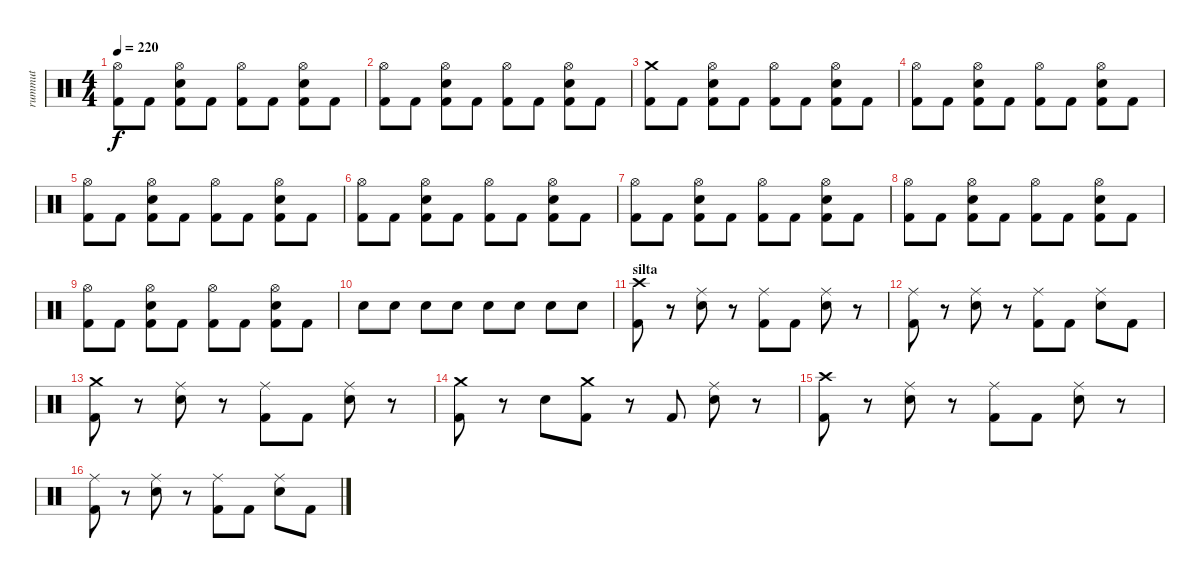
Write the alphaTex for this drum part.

\track ("rummut" "rummut") {instrument percussion}
\staff {score}
\articulation defaults
\ts (4 4)
\tempo 220
\clef neutral
\ks c
("Hi-Hat (open)" "Kick (hit) 2").8{dy f} "Kick (hit) 2".8 ("Hi-Hat (open)" "Electric Snare (hit)" "Kick (hit) 2").8 "Kick (hit) 2".8 ("Hi-Hat (open)" "Kick (hit) 2").8 "Kick (hit) 2".8 ("Hi-Hat (open)" "Electric Snare (hit)" "Kick (hit) 2").8 "Kick (hit) 2".8 |
("Hi-Hat (open)" "Kick (hit) 2").8 "Kick (hit) 2".8 ("Hi-Hat (open)" "Electric Snare (hit)" "Kick (hit) 2").8 "Kick (hit) 2".8 ("Hi-Hat (open)" "Kick (hit) 2").8 "Kick (hit) 2".8 ("Hi-Hat (open)" "Electric Snare (hit)" "Kick (hit) 2").8 "Kick (hit) 2".8 |
("Crash medium (hit)" "Kick (hit) 2").8 "Kick (hit) 2".8 ("Hi-Hat (open)" "Electric Snare (hit)" "Kick (hit) 2").8 "Kick (hit) 2".8 ("Hi-Hat (open)" "Kick (hit) 2").8 "Kick (hit) 2".8 ("Hi-Hat (open)" "Electric Snare (hit)" "Kick (hit) 2").8 "Kick (hit) 2".8 |
("Hi-Hat (open)" "Kick (hit) 2").8 "Kick (hit) 2".8 ("Hi-Hat (open)" "Electric Snare (hit)" "Kick (hit) 2").8 "Kick (hit) 2".8 ("Hi-Hat (open)" "Kick (hit) 2").8 "Kick (hit) 2".8 ("Hi-Hat (open)" "Electric Snare (hit)" "Kick (hit) 2").8 "Kick (hit) 2".8 |
("Hi-Hat (open)" "Kick (hit) 2").8 "Kick (hit) 2".8 ("Hi-Hat (open)" "Electric Snare (hit)" "Kick (hit) 2").8 "Kick (hit) 2".8 ("Hi-Hat (open)" "Kick (hit) 2").8 "Kick (hit) 2".8 ("Hi-Hat (open)" "Electric Snare (hit)" "Kick (hit) 2").8 "Kick (hit) 2".8 |
("Hi-Hat (open)" "Kick (hit) 2").8 "Kick (hit) 2".8 ("Hi-Hat (open)" "Electric Snare (hit)" "Kick (hit) 2").8 "Kick (hit) 2".8 ("Hi-Hat (open)" "Kick (hit) 2").8 "Kick (hit) 2".8 ("Hi-Hat (open)" "Electric Snare (hit)" "Kick (hit) 2").8 "Kick (hit) 2".8 |
("Hi-Hat (open)" "Kick (hit) 2").8 "Kick (hit) 2".8 ("Hi-Hat (open)" "Electric Snare (hit)" "Kick (hit) 2").8 "Kick (hit) 2".8 ("Hi-Hat (open)" "Kick (hit) 2").8 "Kick (hit) 2".8 ("Hi-Hat (open)" "Electric Snare (hit)" "Kick (hit) 2").8 "Kick (hit) 2".8 |
("Hi-Hat (open)" "Kick (hit) 2").8 "Kick (hit) 2".8 ("Hi-Hat (open)" "Electric Snare (hit)" "Kick (hit) 2").8 "Kick (hit) 2".8 ("Hi-Hat (open)" "Kick (hit) 2").8 "Kick (hit) 2".8 ("Hi-Hat (open)" "Electric Snare (hit)" "Kick (hit) 2").8 "Kick (hit) 2".8 |
("Hi-Hat (open)" "Kick (hit) 2").8 "Kick (hit) 2".8 ("Hi-Hat (open)" "Electric Snare (hit)" "Kick (hit) 2").8 "Kick (hit) 2".8 ("Hi-Hat (open)" "Kick (hit) 2").8 "Kick (hit) 2".8 ("Hi-Hat (open)" "Electric Snare (hit)" "Kick (hit) 2").8 "Kick (hit) 2".8 |
"Electric Snare (hit)".8 "Electric Snare (hit)".8 "Electric Snare (hit)".8 "Electric Snare (hit)".8 "Electric Snare (hit)".8 "Electric Snare (hit)".8 "Electric Snare (hit)".8 "Electric Snare (hit)".8 |
\section ("" "silta")
("Crash high (hit)" "Kick (hit) 2").8 r.8 ("Ride (middle)" "Electric Snare (hit)").8 r.8 ("Ride (middle)" "Kick (hit) 2").8 "Kick (hit) 2".8 ("Ride (middle)" "Electric Snare (hit)").8 r.8 |
("Ride (middle)" "Kick (hit) 2").8 r.8 ("Ride (middle)" "Electric Snare (hit)").8 r.8 ("Ride (middle)" "Kick (hit) 2").8 "Kick (hit) 2".8 ("Ride (middle)" "Electric Snare (hit)").8 "Kick (hit) 2".8 |
("Crash medium (hit)" "Kick (hit) 2").8 r.8 ("Ride (middle)" "Electric Snare (hit)").8 r.8 ("Ride (middle)" "Kick (hit) 2").8 "Kick (hit) 2".8 ("Ride (middle)" "Electric Snare (hit)").8 r.8 |
("Crash medium (hit)" "Kick (hit) 2").8 r.8 "Electric Snare (hit)".8 ("Crash medium (hit)" "Kick (hit) 2").8 r.8 "Kick (hit) 2".8 ("Ride (middle)" "Electric Snare (hit)").8 r.8 |
("Crash high (hit)" "Kick (hit) 2").8 r.8 ("Ride (middle)" "Electric Snare (hit)").8 r.8 ("Ride (middle)" "Kick (hit) 2").8 "Kick (hit) 2".8 ("Ride (middle)" "Electric Snare (hit)").8 r.8 |
("Ride (middle)" "Kick (hit) 2").8 r.8 ("Ride (middle)" "Electric Snare (hit)").8 r.8 ("Ride (middle)" "Kick (hit) 2").8 "Kick (hit) 2".8 ("Ride (middle)" "Electric Snare (hit)").8 "Kick (hit) 2".8
